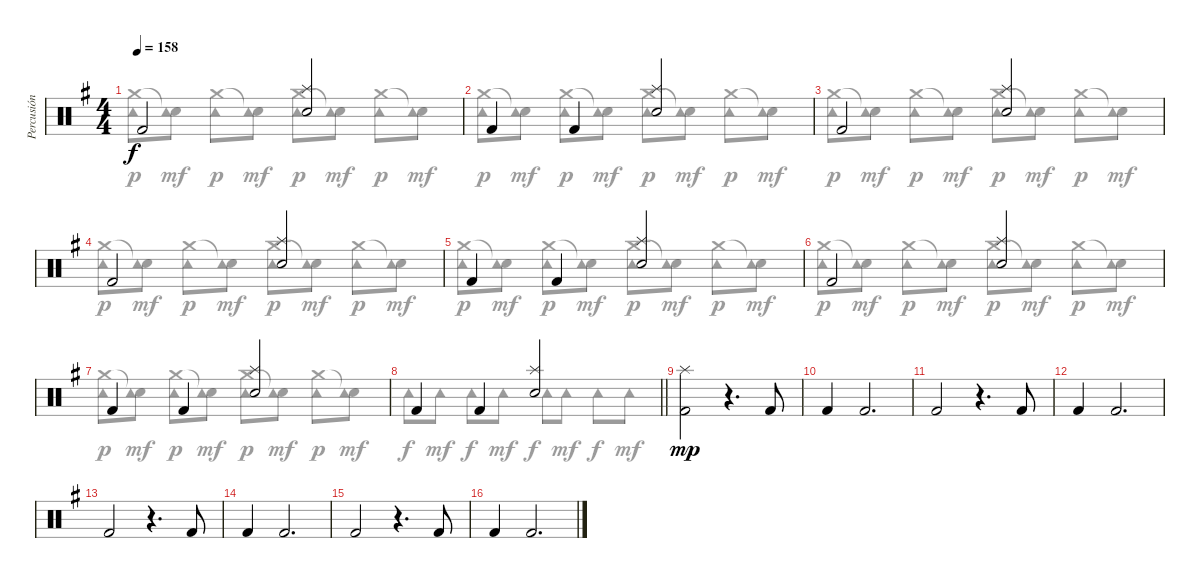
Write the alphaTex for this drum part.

\track ("Percusión" "Percusión") {instrument percussion}
\staff {score}
\articulation defaults
\voice
\ts (4 4)
\tempo 158
\clef neutral
\ks g "Kick (hit) 2".2{dy f}
("Splash (hit)" "Snare (hit) 2").2 |
"Kick (hit) 2".4 "Kick (hit) 2".4 ("Splash (hit)" "Snare (hit) 2").2 |
"Kick (hit) 2".2 ("Splash (hit)" "Snare (hit) 2").2 |
"Kick (hit) 2".2 ("Splash (hit)" "Snare (hit) 2").2 |
"Kick (hit) 2".4 "Kick (hit) 2".4 ("Splash (hit)" "Snare (hit) 2").2 |
"Kick (hit) 2".2 ("Splash (hit)" "Snare (hit) 2").2 |
"Kick (hit) 2".4 "Kick (hit) 2".4 ("Splash (hit)" "Snare (hit) 2").2 |
\barLineRight lightlight "Kick (hit) 2".4 "Kick (hit) 2".4
("Splash (hit)" "Snare (hit) 2").2 |
("Splash (hit)" "Kick (hit) 2").2{dy mp} r.4{d} "Kick (hit) 2".8 |
"Kick (hit) 2".4 "Kick (hit) 2".2{d} |
"Kick (hit) 2".2 r.4{d} "Kick (hit) 2".8 |
"Kick (hit) 2".4 "Kick (hit) 2".2{d} |
"Kick (hit) 2".2 r.4{d} "Kick (hit) 2".8 |
"Kick (hit) 2".4 "Kick (hit) 2".2{d} |
"Kick (hit) 2".2 r.4{d} "Kick (hit) 2".8 |
"Kick (hit) 2".4 "Kick (hit) 2".2{d}
\voice
\clef neutral
\ottava regular
\simile none
\ks g
("Crash medium (hit)" "Tambourine (hit)").8{dy p} ("Snare (hit)"{t} "Tambourine (hit)").8{dy mf} ("Crash medium (hit)" "Tambourine (hit)").8{dy p} ("Snare (hit)"{t} "Tambourine (hit)").8{dy mf} ("Crash medium (hit)" "Tambourine (hit)").8{dy p} ("Snare (hit)"{t} "Tambourine (hit)").8{dy mf} ("Crash medium (hit)" "Tambourine (hit)").8{dy p} ("Snare (hit)"{t} "Tambourine (hit)").8{dy mf} |
("Crash medium (hit)" "Tambourine (hit)").8{dy p} ("Snare (hit)"{t} "Tambourine (hit)").8{dy mf} ("Crash medium (hit)" "Tambourine (hit)").8{dy p} ("Snare (hit)"{t} "Tambourine (hit)").8{dy mf} ("Crash medium (hit)" "Tambourine (hit)").8{dy p} ("Snare (hit)"{t} "Tambourine (hit)").8{dy mf} ("Crash medium (hit)" "Tambourine (hit)").8{dy p} ("Snare (hit)"{t} "Tambourine (hit)").8{dy mf} |
("Crash medium (hit)" "Tambourine (hit)").8{dy p} ("Snare (hit)"{t} "Tambourine (hit)").8{dy mf} ("Crash medium (hit)" "Tambourine (hit)").8{dy p} ("Snare (hit)"{t} "Tambourine (hit)").8{dy mf} ("Crash medium (hit)" "Tambourine (hit)").8{dy p} ("Snare (hit)"{t} "Tambourine (hit)").8{dy mf} ("Crash medium (hit)" "Tambourine (hit)").8{dy p} ("Snare (hit)"{t} "Tambourine (hit)").8{dy mf} |
("Crash medium (hit)" "Tambourine (hit)").8{dy p} ("Snare (hit)"{t} "Tambourine (hit)").8{dy mf} ("Crash medium (hit)" "Tambourine (hit)").8{dy p} ("Snare (hit)"{t} "Tambourine (hit)").8{dy mf} ("Crash medium (hit)" "Tambourine (hit)").8{dy p} ("Snare (hit)"{t} "Tambourine (hit)").8{dy mf} ("Crash medium (hit)" "Tambourine (hit)").8{dy p} ("Snare (hit)"{t} "Tambourine (hit)").8{dy mf} |
("Crash medium (hit)" "Tambourine (hit)").8{dy p} ("Snare (hit)"{t} "Tambourine (hit)").8{dy mf} ("Crash medium (hit)" "Tambourine (hit)").8{dy p} ("Snare (hit)"{t} "Tambourine (hit)").8{dy mf} ("Crash medium (hit)" "Tambourine (hit)").8{dy p} ("Snare (hit)"{t} "Tambourine (hit)").8{dy mf} ("Crash medium (hit)" "Tambourine (hit)").8{dy p} ("Snare (hit)"{t} "Tambourine (hit)").8{dy mf} |
("Crash medium (hit)" "Tambourine (hit)").8{dy p} ("Snare (hit)"{t} "Tambourine (hit)").8{dy mf} ("Crash medium (hit)" "Tambourine (hit)").8{dy p} ("Snare (hit)"{t} "Tambourine (hit)").8{dy mf} ("Crash medium (hit)" "Tambourine (hit)").8{dy p} ("Snare (hit)"{t} "Tambourine (hit)").8{dy mf} ("Crash medium (hit)" "Tambourine (hit)").8{dy p} ("Snare (hit)"{t} "Tambourine (hit)").8{dy mf} |
("Crash medium (hit)" "Tambourine (hit)").8{dy p} ("Snare (hit)"{t} "Tambourine (hit)").8{dy mf} ("Crash medium (hit)" "Tambourine (hit)").8{dy p} ("Snare (hit)"{t} "Tambourine (hit)").8{dy mf} ("Crash medium (hit)" "Tambourine (hit)").8{dy p} ("Snare (hit)"{t} "Tambourine (hit)").8{dy mf} ("Crash medium (hit)" "Tambourine (hit)").8{dy p} ("Snare (hit)"{t} "Tambourine (hit)").8{dy mf} |
\barLineRight lightlight "Tambourine (hit)".8{dy f} "Tambourine (hit)".8{dy mf} "Tambourine (hit)".8{dy f} "Tambourine (hit)".8{dy mf} "Tambourine (hit)".8{dy f} "Tambourine (hit)".8{dy mf} "Tambourine (hit)".8{dy f} "Tambourine (hit)".8{dy mf}
|
|
|
|
|
|
|
|
